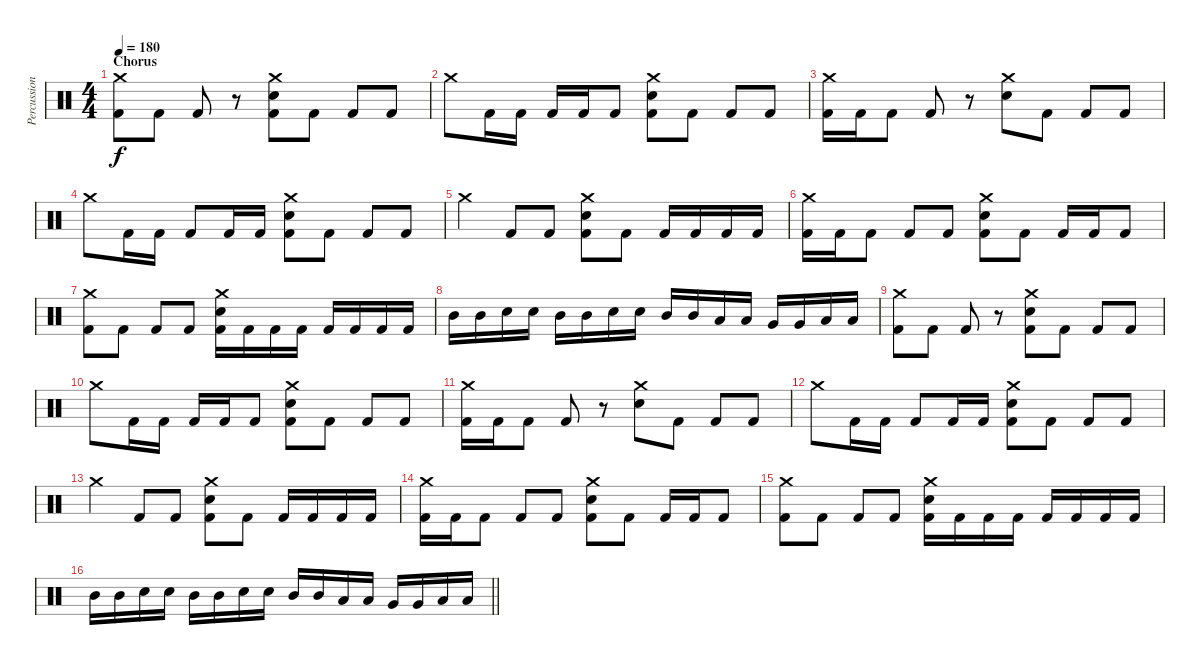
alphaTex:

\track ("Percussion" "Percussion") {instrument percussion}
\staff {score}
\articulation defaults
\ts (4 4)
\section ("" "Chorus")
\tempo 180
\clef neutral
\ks c
("Crash medium (hit)" "Kick (hit) 2").8{dy f} "Kick (hit) 2".8 "Kick (hit) 2".8 r.8 ("Crash medium (hit)" "Electric Snare (hit)" "Kick (hit) 2").8 "Kick (hit) 2".8 "Kick (hit) 2".8 "Kick (hit) 2".8 |
"Crash medium (hit)".8 "Kick (hit) 2".16 "Kick (hit) 2".16 "Kick (hit) 2".16 "Kick (hit) 2".16 "Kick (hit) 2".8 ("Crash medium (hit)" "Electric Snare (hit)" "Kick (hit) 2").8 "Kick (hit) 2".8 "Kick (hit) 2".8 "Kick (hit) 2".8 |
("Crash medium (hit)" "Kick (hit) 2").16 "Kick (hit) 2".16 "Kick (hit) 2".8 "Kick (hit) 2".8 r.8 ("Crash medium (hit)" "Electric Snare (hit)").8 "Kick (hit) 2".8 "Kick (hit) 2".8 "Kick (hit) 2".8 |
"Crash medium (hit)".8 "Kick (hit) 2".16 "Kick (hit) 2".16 "Kick (hit) 2".8 "Kick (hit) 2".16 "Kick (hit) 2".16 ("Crash medium (hit)" "Electric Snare (hit)" "Kick (hit) 2").8 "Kick (hit) 2".8 "Kick (hit) 2".8 "Kick (hit) 2".8 |
"Crash medium (hit)".4 "Kick (hit) 2".8 "Kick (hit) 2".8 ("Crash medium (hit)" "Electric Snare (hit)" "Kick (hit) 2").8 "Kick (hit) 2".8 "Kick (hit) 2".16 "Kick (hit) 2".16 "Kick (hit) 2".16 "Kick (hit) 2".16 |
("Crash medium (hit)" "Kick (hit) 2").16 "Kick (hit) 2".16 "Kick (hit) 2".8 "Kick (hit) 2".8 "Kick (hit) 2".8 ("Crash medium (hit)" "Electric Snare (hit)" "Kick (hit) 2").8 "Kick (hit) 2".8 "Kick (hit) 2".16 "Kick (hit) 2".16 "Kick (hit) 2".8 |
("Crash medium (hit)" "Kick (hit) 2").8 "Kick (hit) 2".8 "Kick (hit) 2".8 "Kick (hit) 2".8 ("Crash medium (hit)" "Electric Snare (hit)" "Kick (hit) 2").16 "Kick (hit) 2".16 "Kick (hit) 2".16 "Kick (hit) 2".16 "Kick (hit) 2".16 "Kick (hit) 2".16 "Kick (hit) 2".16 "Kick (hit) 2".16 |
"Mid Tom (hit)".16 "Mid Tom (hit)".16 "Electric Snare (hit)".16 "Electric Snare (hit)".16 "Mid Tom (hit)".16 "Mid Tom (hit)".16 "Electric Snare (hit)".16 "Electric Snare (hit)".16 "Mid Tom (hit)".16 "Mid Tom (hit)".16 "Low Tom (hit)".16 "Low Tom (hit)".16 "Very Low Tom (hit)".16 "Very Low Tom (hit)".16 "Low Floor Tom (hit)".16 "Low Floor Tom (hit)".16 |
("Crash medium (hit)" "Kick (hit) 2").8 "Kick (hit) 2".8 "Kick (hit) 2".8 r.8 ("Crash medium (hit)" "Electric Snare (hit)" "Kick (hit) 2").8 "Kick (hit) 2".8 "Kick (hit) 2".8 "Kick (hit) 2".8 |
"Crash medium (hit)".8 "Kick (hit) 2".16 "Kick (hit) 2".16 "Kick (hit) 2".16 "Kick (hit) 2".16 "Kick (hit) 2".8 ("Crash medium (hit)" "Electric Snare (hit)" "Kick (hit) 2").8 "Kick (hit) 2".8 "Kick (hit) 2".8 "Kick (hit) 2".8 |
("Crash medium (hit)" "Kick (hit) 2").16 "Kick (hit) 2".16 "Kick (hit) 2".8 "Kick (hit) 2".8 r.8 ("Crash medium (hit)" "Electric Snare (hit)").8 "Kick (hit) 2".8 "Kick (hit) 2".8 "Kick (hit) 2".8 |
"Crash medium (hit)".8 "Kick (hit) 2".16 "Kick (hit) 2".16 "Kick (hit) 2".8 "Kick (hit) 2".16 "Kick (hit) 2".16 ("Crash medium (hit)" "Electric Snare (hit)" "Kick (hit) 2").8 "Kick (hit) 2".8 "Kick (hit) 2".8 "Kick (hit) 2".8 |
"Crash medium (hit)".4 "Kick (hit) 2".8 "Kick (hit) 2".8 ("Crash medium (hit)" "Electric Snare (hit)" "Kick (hit) 2").8 "Kick (hit) 2".8 "Kick (hit) 2".16 "Kick (hit) 2".16 "Kick (hit) 2".16 "Kick (hit) 2".16 |
("Crash medium (hit)" "Kick (hit) 2").16 "Kick (hit) 2".16 "Kick (hit) 2".8 "Kick (hit) 2".8 "Kick (hit) 2".8 ("Crash medium (hit)" "Electric Snare (hit)" "Kick (hit) 2").8 "Kick (hit) 2".8 "Kick (hit) 2".16 "Kick (hit) 2".16 "Kick (hit) 2".8 |
("Crash medium (hit)" "Kick (hit) 2").8 "Kick (hit) 2".8 "Kick (hit) 2".8 "Kick (hit) 2".8 ("Crash medium (hit)" "Electric Snare (hit)" "Kick (hit) 2").16 "Kick (hit) 2".16 "Kick (hit) 2".16 "Kick (hit) 2".16 "Kick (hit) 2".16 "Kick (hit) 2".16 "Kick (hit) 2".16 "Kick (hit) 2".16 |
\barLineRight lightlight "Mid Tom (hit)".16 "Mid Tom (hit)".16 "Electric Snare (hit)".16 "Electric Snare (hit)".16 "Mid Tom (hit)".16 "Mid Tom (hit)".16 "Electric Snare (hit)".16 "Electric Snare (hit)".16 "Mid Tom (hit)".16 "Mid Tom (hit)".16 "Low Tom (hit)".16 "Low Tom (hit)".16 "Very Low Tom (hit)".16 "Very Low Tom (hit)".16 "Low Floor Tom (hit)".16 "Low Floor Tom (hit)".16
